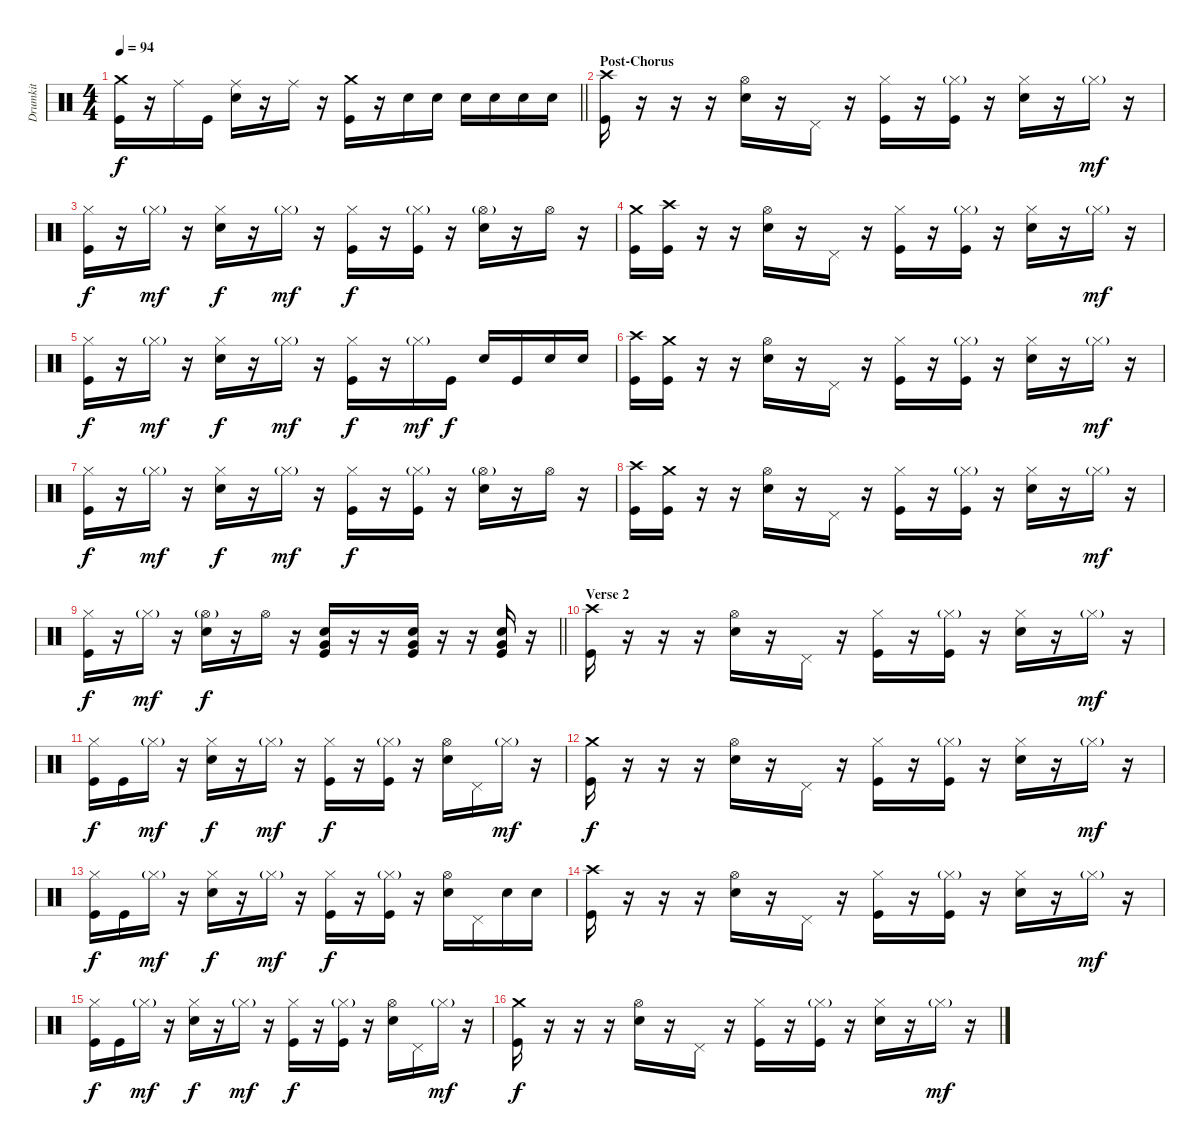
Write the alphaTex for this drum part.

\track ("Drumkit" "Drumkit") {instrument percussion}
\staff {score}
\articulation defaults
\ts (4 4)
\tempo 94
\clef neutral
\barLineRight lightlight
\ks c
("Crash medium (hit)" "Kick (hit)").16{dy f} r.16 "Ride (middle)".16 "Kick (hit)".16 ("Ride (middle)" "Snare (hit) 2").16 r.16 "Ride (middle)".16 r.16 ("Crash medium (hit)" "Kick (hit)").16 r.16 "Snare (hit) 2".16 "Snare (hit) 2".16 "Snare (hit) 2".16 "Snare (hit) 2".16 "Snare (hit) 2".16 "Snare (hit) 2".16 |
\section ("" "Post-Chorus")
("Crash high (hit)" "Kick (hit)").16 r.16 r.16 r.16 ("Hi-Hat (open)" "Snare (hit) 2").16 r.16 "Pedal Hi-Hat (hit)".16 r.16 ("Hi-Hat (closed)" "Kick (hit)").16 r.16 ("Hi-Hat (closed)"{g} "Kick (hit)").16 r.16 ("Hi-Hat (closed)" "Snare (hit) 2").16 r.16 "Hi-Hat (closed)"{g}.16{dy mf} r.16 |
("Hi-Hat (closed)" "Kick (hit)").16{dy f} r.16 "Hi-Hat (closed)"{g}.16{dy mf} r.16 ("Hi-Hat (closed)" "Snare (hit) 2").16{dy f} r.16 "Hi-Hat (closed)"{g}.16{dy mf} r.16 ("Hi-Hat (closed)" "Kick (hit)").16{dy f} r.16 ("Hi-Hat (closed)"{g} "Kick (hit)").16 r.16 ("Hi-Hat (open)"{g} "Snare (hit) 2").16 r.16 "Hi-Hat (open)".16 r.16 |
("Crash medium (hit)" "Kick (hit)").16 ("Crash high (hit)" "Kick (hit)").16 r.16 r.16 ("Hi-Hat (open)" "Snare (hit) 2").16 r.16 "Pedal Hi-Hat (hit)".16 r.16 ("Hi-Hat (closed)" "Kick (hit)").16 r.16 ("Hi-Hat (closed)"{g} "Kick (hit)").16 r.16 ("Hi-Hat (closed)" "Snare (hit) 2").16 r.16 "Hi-Hat (closed)"{g}.16{dy mf} r.16 |
("Hi-Hat (closed)" "Kick (hit)").16{dy f} r.16 "Hi-Hat (closed)"{g}.16{dy mf} r.16 ("Hi-Hat (closed)" "Snare (hit) 2").16{dy f} r.16 "Hi-Hat (closed)"{g}.16{dy mf} r.16 ("Hi-Hat (closed)" "Kick (hit)").16{dy f} r.16 "Hi-Hat (closed)"{g}.16{dy mf} "Kick (hit)".16{dy f} "Snare (hit) 2".16 "Kick (hit)".16 "Snare (hit) 2".16 "Snare (hit) 2".16 |
("Crash high (hit)" "Kick (hit)").16 ("Crash medium (hit)" "Kick (hit)").16 r.16 r.16 ("Hi-Hat (open)" "Snare (hit) 2").16 r.16 "Pedal Hi-Hat (hit)".16 r.16 ("Hi-Hat (closed)" "Kick (hit)").16 r.16 ("Hi-Hat (closed)"{g} "Kick (hit)").16 r.16 ("Hi-Hat (closed)" "Snare (hit) 2").16 r.16 "Hi-Hat (closed)"{g}.16{dy mf} r.16 |
("Hi-Hat (closed)" "Kick (hit)").16{dy f} r.16 "Hi-Hat (closed)"{g}.16{dy mf} r.16 ("Hi-Hat (closed)" "Snare (hit) 2").16{dy f} r.16 "Hi-Hat (closed)"{g}.16{dy mf} r.16 ("Hi-Hat (closed)" "Kick (hit)").16{dy f} r.16 ("Hi-Hat (closed)"{g} "Kick (hit)").16 r.16 ("Hi-Hat (open)"{g} "Snare (hit) 2").16 r.16 "Hi-Hat (open)".16 r.16 |
("Crash high (hit)" "Kick (hit)").16 ("Crash medium (hit)" "Kick (hit)").16 r.16 r.16 ("Hi-Hat (open)" "Snare (hit) 2").16 r.16 "Pedal Hi-Hat (hit)".16 r.16 ("Hi-Hat (closed)" "Kick (hit)").16 r.16 ("Hi-Hat (closed)"{g} "Kick (hit)").16 r.16 ("Hi-Hat (closed)" "Snare (hit) 2").16 r.16 "Hi-Hat (closed)"{g}.16{dy mf} r.16 |
\barLineRight lightlight
("Hi-Hat (closed)" "Kick (hit)").16{dy f} r.16 "Hi-Hat (closed)"{g}.16{dy mf} r.16 ("Hi-Hat (open)"{g} "Snare (hit) 2").16{dy f} r.16 "Hi-Hat (open)".16 r.16 ("Very Low Tom (hit)" "Snare (hit) 2" "Kick (hit)").16 r.16 r.16 ("Very Low Tom (hit)" "Snare (hit) 2" "Kick (hit)").16 r.16 r.16 ("Very Low Tom (hit)" "Snare (hit) 2" "Kick (hit)").16 r.16 |
\section ("" "Verse 2")
("Crash high (hit)" "Kick (hit)").16 r.16 r.16 r.16 ("Hi-Hat (open)" "Snare (hit) 2").16 r.16 "Pedal Hi-Hat (hit)".16 r.16 ("Hi-Hat (closed)" "Kick (hit)").16 r.16 ("Hi-Hat (closed)"{g} "Kick (hit)").16 r.16 ("Hi-Hat (closed)" "Snare (hit) 2").16 r.16 "Hi-Hat (closed)"{g}.16{dy mf} r.16 |
("Hi-Hat (closed)" "Kick (hit)").16{dy f} "Kick (hit)".16 "Hi-Hat (closed)"{g}.16{dy mf} r.16 ("Hi-Hat (closed)" "Snare (hit) 2").16{dy f} r.16 "Hi-Hat (closed)"{g}.16{dy mf} r.16 ("Hi-Hat (closed)" "Kick (hit)").16{dy f} r.16 ("Hi-Hat (closed)"{g} "Kick (hit)").16 r.16 ("Hi-Hat (open)" "Snare (hit) 2").16 "Pedal Hi-Hat (hit)".16 "Hi-Hat (closed)"{g}.16{dy mf} r.16 |
("Crash medium (hit)" "Kick (hit)").16{dy f} r.16 r.16 r.16 ("Hi-Hat (open)" "Snare (hit) 2").16 r.16 "Pedal Hi-Hat (hit)".16 r.16 ("Hi-Hat (closed)" "Kick (hit)").16 r.16 ("Hi-Hat (closed)"{g} "Kick (hit)").16 r.16 ("Hi-Hat (closed)" "Snare (hit) 2").16 r.16 "Hi-Hat (closed)"{g}.16{dy mf} r.16 |
("Hi-Hat (closed)" "Kick (hit)").16{dy f} "Kick (hit)".16 "Hi-Hat (closed)"{g}.16{dy mf} r.16 ("Hi-Hat (closed)" "Snare (hit) 2").16{dy f} r.16 "Hi-Hat (closed)"{g}.16{dy mf} r.16 ("Hi-Hat (closed)" "Kick (hit)").16{dy f} r.16 ("Hi-Hat (closed)"{g} "Kick (hit)").16 r.16 ("Hi-Hat (open)" "Snare (hit) 2").16 "Pedal Hi-Hat (hit)".16 "Snare (hit) 2".16 "Snare (hit) 2".16 |
("Crash high (hit)" "Kick (hit)").16 r.16 r.16 r.16 ("Hi-Hat (open)" "Snare (hit) 2").16 r.16 "Pedal Hi-Hat (hit)".16 r.16 ("Hi-Hat (closed)" "Kick (hit)").16 r.16 ("Hi-Hat (closed)"{g} "Kick (hit)").16 r.16 ("Hi-Hat (closed)" "Snare (hit) 2").16 r.16 "Hi-Hat (closed)"{g}.16{dy mf} r.16 |
("Hi-Hat (closed)" "Kick (hit)").16{dy f} "Kick (hit)".16 "Hi-Hat (closed)"{g}.16{dy mf} r.16 ("Hi-Hat (closed)" "Snare (hit) 2").16{dy f} r.16 "Hi-Hat (closed)"{g}.16{dy mf} r.16 ("Hi-Hat (closed)" "Kick (hit)").16{dy f} r.16 ("Hi-Hat (closed)"{g} "Kick (hit)").16 r.16 ("Hi-Hat (open)" "Snare (hit) 2").16 "Pedal Hi-Hat (hit)".16 "Hi-Hat (closed)"{g}.16{dy mf} r.16 |
("Crash medium (hit)" "Kick (hit)").16{dy f} r.16 r.16 r.16 ("Hi-Hat (open)" "Snare (hit) 2").16 r.16 "Pedal Hi-Hat (hit)".16 r.16 ("Hi-Hat (closed)" "Kick (hit)").16 r.16 ("Hi-Hat (closed)"{g} "Kick (hit)").16 r.16 ("Hi-Hat (closed)" "Snare (hit) 2").16 r.16 "Hi-Hat (closed)"{g}.16{dy mf} r.16
